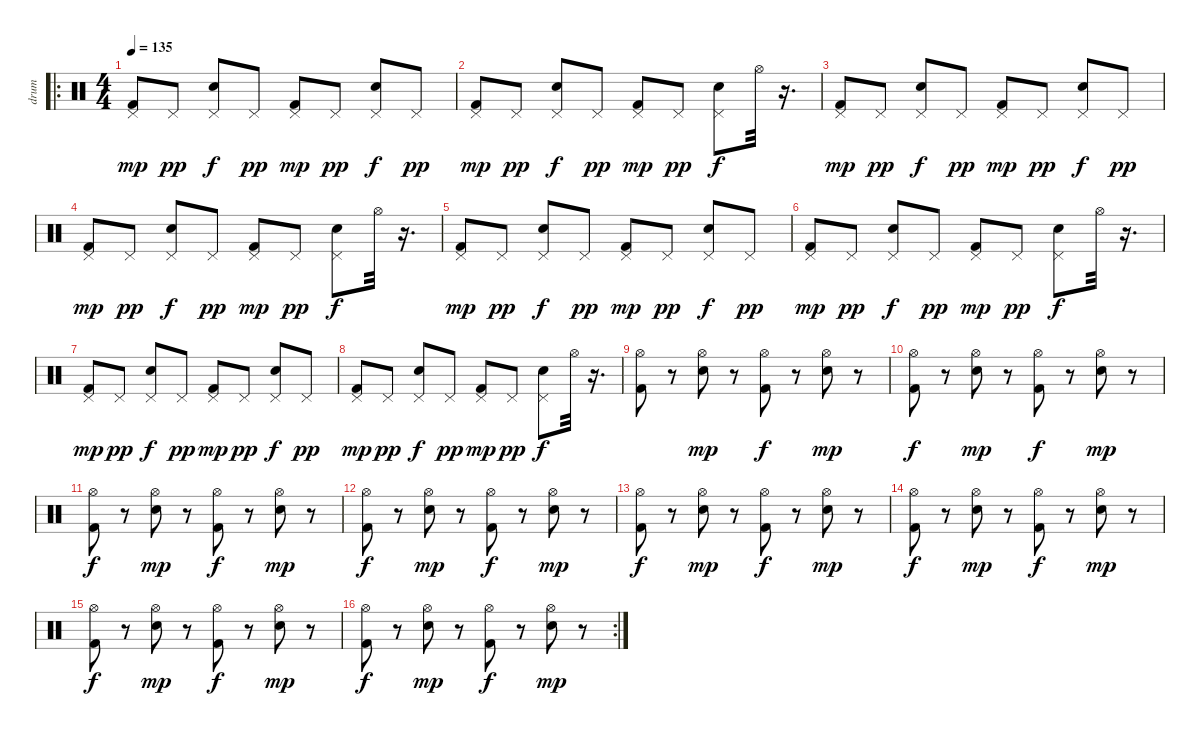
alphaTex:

\track ("drum" "drum") {instrument percussion}
\staff {score}
\articulation defaults
\ro
\ts (4 4)
\tempo 135
\clef neutral
\ks c
("Pedal Hi-Hat (hit)" "Kick (hit) 2").8{dy mp} "Pedal Hi-Hat (hit)".8{dy pp} ("Pedal Hi-Hat (hit)" "Electric Snare (hit)").8{dy f} "Pedal Hi-Hat (hit)".8{dy pp} ("Pedal Hi-Hat (hit)" "Kick (hit) 2").8{dy mp} "Pedal Hi-Hat (hit)".8{dy pp} ("Pedal Hi-Hat (hit)" "Electric Snare (hit)").8{dy f} "Pedal Hi-Hat (hit)".8{dy pp} |
("Pedal Hi-Hat (hit)" "Kick (hit) 2").8{dy mp} "Pedal Hi-Hat (hit)".8{dy pp} ("Pedal Hi-Hat (hit)" "Electric Snare (hit)").8{dy f} "Pedal Hi-Hat (hit)".8{dy pp} ("Pedal Hi-Hat (hit)" "Kick (hit) 2").8{dy mp} "Pedal Hi-Hat (hit)".8{dy pp} ("Pedal Hi-Hat (hit)" "Electric Snare (hit)").8{dy f} "Hi-Hat (open)".32 r.16{d} |
("Pedal Hi-Hat (hit)" "Kick (hit) 2").8{dy mp} "Pedal Hi-Hat (hit)".8{dy pp} ("Pedal Hi-Hat (hit)" "Electric Snare (hit)").8{dy f} "Pedal Hi-Hat (hit)".8{dy pp} ("Pedal Hi-Hat (hit)" "Kick (hit) 2").8{dy mp} "Pedal Hi-Hat (hit)".8{dy pp} ("Pedal Hi-Hat (hit)" "Electric Snare (hit)").8{dy f} "Pedal Hi-Hat (hit)".8{dy pp} |
("Pedal Hi-Hat (hit)" "Kick (hit) 2").8{dy mp} "Pedal Hi-Hat (hit)".8{dy pp} ("Pedal Hi-Hat (hit)" "Electric Snare (hit)").8{dy f} "Pedal Hi-Hat (hit)".8{dy pp} ("Pedal Hi-Hat (hit)" "Kick (hit) 2").8{dy mp} "Pedal Hi-Hat (hit)".8{dy pp} ("Pedal Hi-Hat (hit)" "Electric Snare (hit)").8{dy f} "Hi-Hat (open)".32 r.16{d} |
("Pedal Hi-Hat (hit)" "Kick (hit) 2").8{dy mp} "Pedal Hi-Hat (hit)".8{dy pp} ("Pedal Hi-Hat (hit)" "Electric Snare (hit)").8{dy f} "Pedal Hi-Hat (hit)".8{dy pp} ("Pedal Hi-Hat (hit)" "Kick (hit) 2").8{dy mp} "Pedal Hi-Hat (hit)".8{dy pp} ("Pedal Hi-Hat (hit)" "Electric Snare (hit)").8{dy f} "Pedal Hi-Hat (hit)".8{dy pp} |
("Pedal Hi-Hat (hit)" "Kick (hit) 2").8{dy mp} "Pedal Hi-Hat (hit)".8{dy pp} ("Pedal Hi-Hat (hit)" "Electric Snare (hit)").8{dy f} "Pedal Hi-Hat (hit)".8{dy pp} ("Pedal Hi-Hat (hit)" "Kick (hit) 2").8{dy mp} "Pedal Hi-Hat (hit)".8{dy pp} ("Pedal Hi-Hat (hit)" "Electric Snare (hit)").8{dy f} "Hi-Hat (open)".32 r.16{d} |
("Pedal Hi-Hat (hit)" "Kick (hit) 2").8{dy mp} "Pedal Hi-Hat (hit)".8{dy pp} ("Pedal Hi-Hat (hit)" "Electric Snare (hit)").8{dy f} "Pedal Hi-Hat (hit)".8{dy pp} ("Pedal Hi-Hat (hit)" "Kick (hit) 2").8{dy mp} "Pedal Hi-Hat (hit)".8{dy pp} ("Pedal Hi-Hat (hit)" "Electric Snare (hit)").8{dy f} "Pedal Hi-Hat (hit)".8{dy pp} |
("Pedal Hi-Hat (hit)" "Kick (hit) 2").8{dy mp} "Pedal Hi-Hat (hit)".8{dy pp} ("Pedal Hi-Hat (hit)" "Electric Snare (hit)").8{dy f} "Pedal Hi-Hat (hit)".8{dy pp} ("Pedal Hi-Hat (hit)" "Kick (hit) 2").8{dy mp} "Pedal Hi-Hat (hit)".8{dy pp} ("Pedal Hi-Hat (hit)" "Electric Snare (hit)").8{dy f} "Hi-Hat (open)".32 r.16{d} |
("Hi-Hat (open)" "Kick (hit) 2").8 r.8 ("Hi-Hat (open)" "Electric Snare (hit)").8{dy mp} r.8 ("Hi-Hat (open)" "Kick (hit) 2").8{dy f} r.8 ("Hi-Hat (open)" "Electric Snare (hit)").8{dy mp} r.8 |
("Hi-Hat (open)" "Kick (hit) 2").8{dy f} r.8 ("Hi-Hat (open)" "Electric Snare (hit)").8{dy mp} r.8 ("Hi-Hat (open)" "Kick (hit) 2").8{dy f} r.8 ("Hi-Hat (open)" "Electric Snare (hit)").8{dy mp} r.8 |
("Hi-Hat (open)" "Kick (hit) 2").8{dy f} r.8 ("Hi-Hat (open)" "Electric Snare (hit)").8{dy mp} r.8 ("Hi-Hat (open)" "Kick (hit) 2").8{dy f} r.8 ("Hi-Hat (open)" "Electric Snare (hit)").8{dy mp} r.8 |
("Hi-Hat (open)" "Kick (hit) 2").8{dy f} r.8 ("Hi-Hat (open)" "Electric Snare (hit)").8{dy mp} r.8 ("Hi-Hat (open)" "Kick (hit) 2").8{dy f} r.8 ("Hi-Hat (open)" "Electric Snare (hit)").8{dy mp} r.8 |
("Hi-Hat (open)" "Kick (hit) 2").8{dy f} r.8 ("Hi-Hat (open)" "Electric Snare (hit)").8{dy mp} r.8 ("Hi-Hat (open)" "Kick (hit) 2").8{dy f} r.8 ("Hi-Hat (open)" "Electric Snare (hit)").8{dy mp} r.8 |
("Hi-Hat (open)" "Kick (hit) 2").8{dy f} r.8 ("Hi-Hat (open)" "Electric Snare (hit)").8{dy mp} r.8 ("Hi-Hat (open)" "Kick (hit) 2").8{dy f} r.8 ("Hi-Hat (open)" "Electric Snare (hit)").8{dy mp} r.8 |
("Hi-Hat (open)" "Kick (hit) 2").8{dy f} r.8 ("Hi-Hat (open)" "Electric Snare (hit)").8{dy mp} r.8 ("Hi-Hat (open)" "Kick (hit) 2").8{dy f} r.8 ("Hi-Hat (open)" "Electric Snare (hit)").8{dy mp} r.8 |
\rc 2
("Hi-Hat (open)" "Kick (hit) 2").8{dy f} r.8 ("Hi-Hat (open)" "Electric Snare (hit)").8{dy mp} r.8 ("Hi-Hat (open)" "Kick (hit) 2").8{dy f} r.8 ("Hi-Hat (open)" "Electric Snare (hit)").8{dy mp} r.8
